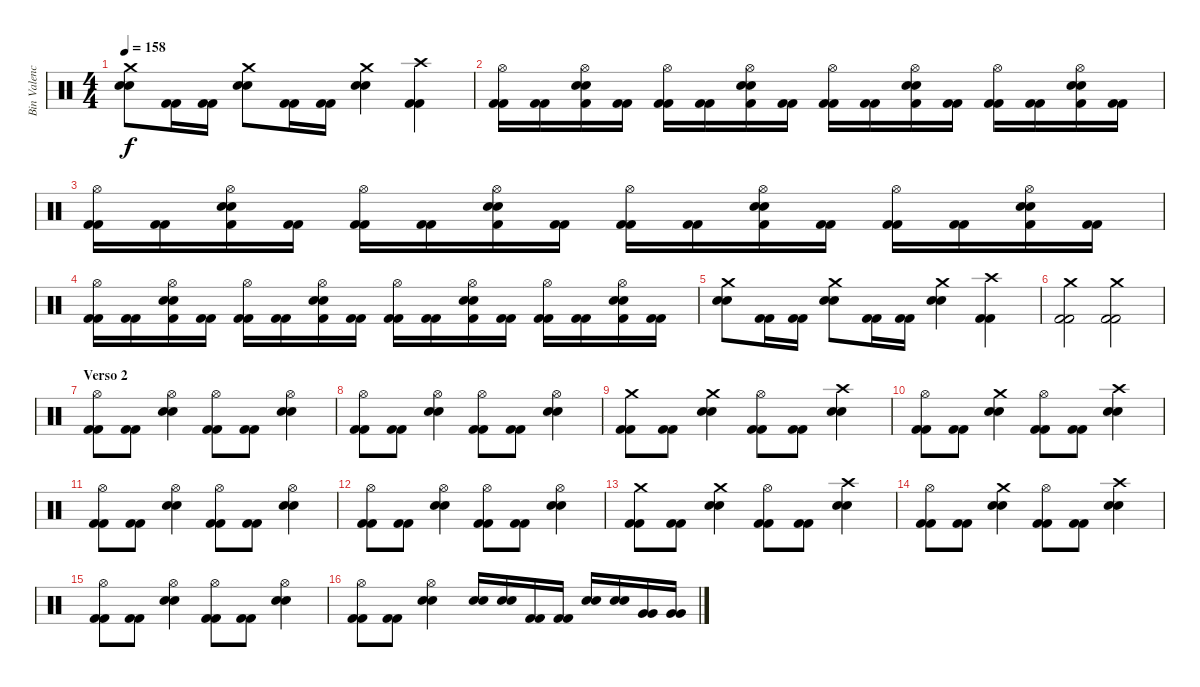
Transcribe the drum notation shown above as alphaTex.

\track ("Bin Valencia (bateria)" "Bin Valenc") {instrument percussion}
\staff {score}
\articulation defaults
\ts (4 4)
\tempo 158
\clef neutral
\ks c
("Crash medium (hit)" "Snare (hit) 2" "Snare (hit) 2").8{dy f} ("Kick (hit) 2" "Kick (hit) 2").16 ("Kick (hit) 2" "Kick (hit) 2").16 ("Crash medium (hit)" "Snare (hit) 2" "Snare (hit) 2").8 ("Kick (hit) 2" "Kick (hit) 2").16 ("Kick (hit) 2" "Kick (hit) 2").16 ("Crash medium (hit)" "Snare (hit) 2" "Snare (hit) 2").4 ("Crash high (hit)" "Kick (hit) 2" "Kick (hit) 2").4 |
("Hi-Hat (open)" "Kick (hit) 2" "Kick (hit) 2").16 ("Kick (hit) 2" "Kick (hit) 2").16 ("Hi-Hat (open)" "Snare (hit) 2" "Snare (hit) 2" "Kick (hit) 2").16 ("Kick (hit) 2" "Kick (hit) 2").16 ("Hi-Hat (open)" "Kick (hit) 2" "Kick (hit) 2").16 ("Kick (hit) 2" "Kick (hit) 2").16 ("Hi-Hat (open)" "Snare (hit) 2" "Snare (hit) 2" "Kick (hit) 2").16 ("Kick (hit) 2" "Kick (hit) 2").16 ("Hi-Hat (open)" "Kick (hit) 2" "Kick (hit) 2").16 ("Kick (hit) 2" "Kick (hit) 2").16 ("Hi-Hat (open)" "Snare (hit) 2" "Snare (hit) 2" "Kick (hit) 2").16 ("Kick (hit) 2" "Kick (hit) 2").16 ("Hi-Hat (open)" "Kick (hit) 2" "Kick (hit) 2").16 ("Kick (hit) 2" "Kick (hit) 2").16 ("Hi-Hat (open)" "Snare (hit) 2" "Snare (hit) 2" "Kick (hit) 2").16 ("Kick (hit) 2" "Kick (hit) 2").16 |
("Hi-Hat (open)" "Kick (hit) 2" "Kick (hit) 2").16 ("Kick (hit) 2" "Kick (hit) 2").16 ("Hi-Hat (open)" "Snare (hit) 2" "Snare (hit) 2" "Kick (hit) 2").16 ("Kick (hit) 2" "Kick (hit) 2").16 ("Hi-Hat (open)" "Kick (hit) 2" "Kick (hit) 2").16 ("Kick (hit) 2" "Kick (hit) 2").16 ("Hi-Hat (open)" "Snare (hit) 2" "Snare (hit) 2" "Kick (hit) 2").16 ("Kick (hit) 2" "Kick (hit) 2").16 ("Hi-Hat (open)" "Kick (hit) 2" "Kick (hit) 2").16 ("Kick (hit) 2" "Kick (hit) 2").16 ("Hi-Hat (open)" "Snare (hit) 2" "Snare (hit) 2" "Kick (hit) 2").16 ("Kick (hit) 2" "Kick (hit) 2").16 ("Hi-Hat (open)" "Kick (hit) 2" "Kick (hit) 2").16 ("Kick (hit) 2" "Kick (hit) 2").16 ("Hi-Hat (open)" "Snare (hit) 2" "Snare (hit) 2" "Kick (hit) 2").16 ("Kick (hit) 2" "Kick (hit) 2").16 |
("Hi-Hat (open)" "Kick (hit) 2" "Kick (hit) 2").16 ("Kick (hit) 2" "Kick (hit) 2").16 ("Hi-Hat (open)" "Snare (hit) 2" "Snare (hit) 2" "Kick (hit) 2").16 ("Kick (hit) 2" "Kick (hit) 2").16 ("Hi-Hat (open)" "Kick (hit) 2" "Kick (hit) 2").16 ("Kick (hit) 2" "Kick (hit) 2").16 ("Hi-Hat (open)" "Snare (hit) 2" "Snare (hit) 2" "Kick (hit) 2").16 ("Kick (hit) 2" "Kick (hit) 2").16 ("Hi-Hat (open)" "Kick (hit) 2" "Kick (hit) 2").16 ("Kick (hit) 2" "Kick (hit) 2").16 ("Hi-Hat (open)" "Snare (hit) 2" "Snare (hit) 2" "Kick (hit) 2").16 ("Kick (hit) 2" "Kick (hit) 2").16 ("Hi-Hat (open)" "Kick (hit) 2" "Kick (hit) 2").16 ("Kick (hit) 2" "Kick (hit) 2").16 ("Hi-Hat (open)" "Snare (hit) 2" "Snare (hit) 2" "Kick (hit) 2").16 ("Kick (hit) 2" "Kick (hit) 2").16 |
("Crash medium (hit)" "Snare (hit) 2" "Snare (hit) 2").8 ("Kick (hit) 2" "Kick (hit) 2").16 ("Kick (hit) 2" "Kick (hit) 2").16 ("Crash medium (hit)" "Snare (hit) 2" "Snare (hit) 2").8 ("Kick (hit) 2" "Kick (hit) 2").16 ("Kick (hit) 2" "Kick (hit) 2").16 ("Crash medium (hit)" "Snare (hit) 2" "Snare (hit) 2").4 ("Crash high (hit)" "Kick (hit) 2" "Kick (hit) 2").4 |
("Crash medium (hit)" "Kick (hit) 2" "Kick (hit) 2").2 ("Crash medium (hit)" "Kick (hit) 2" "Kick (hit) 2").2 |
\section ("" "Verso 2")
("Hi-Hat (open)" "Kick (hit) 2" "Kick (hit) 2").8 ("Kick (hit) 2" "Kick (hit) 2").8 ("Hi-Hat (open)" "Snare (hit) 2" "Snare (hit) 2").4 ("Hi-Hat (open)" "Kick (hit) 2" "Kick (hit) 2").8 ("Kick (hit) 2" "Kick (hit) 2").8 ("Hi-Hat (open)" "Snare (hit) 2" "Snare (hit) 2").4 |
("Hi-Hat (open)" "Kick (hit) 2" "Kick (hit) 2").8 ("Kick (hit) 2" "Kick (hit) 2").8 ("Hi-Hat (open)" "Snare (hit) 2" "Snare (hit) 2").4 ("Hi-Hat (open)" "Kick (hit) 2" "Kick (hit) 2").8 ("Kick (hit) 2" "Kick (hit) 2").8 ("Hi-Hat (open)" "Snare (hit) 2" "Snare (hit) 2").4 |
("Crash medium (hit)" "Kick (hit) 2" "Kick (hit) 2").8 ("Kick (hit) 2" "Kick (hit) 2").8 ("Crash medium (hit)" "Snare (hit) 2" "Snare (hit) 2").4 ("Hi-Hat (open)" "Kick (hit) 2" "Kick (hit) 2").8 ("Kick (hit) 2" "Kick (hit) 2").8 ("Crash high (hit)" "Snare (hit) 2" "Snare (hit) 2").4 |
("Hi-Hat (open)" "Kick (hit) 2" "Kick (hit) 2").8 ("Kick (hit) 2" "Kick (hit) 2").8 ("Crash medium (hit)" "Snare (hit) 2" "Snare (hit) 2").4 ("Hi-Hat (open)" "Kick (hit) 2" "Kick (hit) 2").8 ("Kick (hit) 2" "Kick (hit) 2").8 ("Crash high (hit)" "Snare (hit) 2" "Snare (hit) 2").4 |
("Hi-Hat (open)" "Kick (hit) 2" "Kick (hit) 2").8 ("Kick (hit) 2" "Kick (hit) 2").8 ("Hi-Hat (open)" "Snare (hit) 2" "Snare (hit) 2").4 ("Hi-Hat (open)" "Kick (hit) 2" "Kick (hit) 2").8 ("Kick (hit) 2" "Kick (hit) 2").8 ("Hi-Hat (open)" "Snare (hit) 2" "Snare (hit) 2").4 |
("Hi-Hat (open)" "Kick (hit) 2" "Kick (hit) 2").8 ("Kick (hit) 2" "Kick (hit) 2").8 ("Hi-Hat (open)" "Snare (hit) 2" "Snare (hit) 2").4 ("Hi-Hat (open)" "Kick (hit) 2" "Kick (hit) 2").8 ("Kick (hit) 2" "Kick (hit) 2").8 ("Hi-Hat (open)" "Snare (hit) 2" "Snare (hit) 2").4 |
("Crash medium (hit)" "Kick (hit) 2" "Kick (hit) 2").8 ("Kick (hit) 2" "Kick (hit) 2").8 ("Crash medium (hit)" "Snare (hit) 2" "Snare (hit) 2").4 ("Hi-Hat (open)" "Kick (hit) 2" "Kick (hit) 2").8 ("Kick (hit) 2" "Kick (hit) 2").8 ("Crash high (hit)" "Snare (hit) 2" "Snare (hit) 2").4 |
("Hi-Hat (open)" "Kick (hit) 2" "Kick (hit) 2").8 ("Kick (hit) 2" "Kick (hit) 2").8 ("Crash medium (hit)" "Snare (hit) 2" "Snare (hit) 2").4 ("Hi-Hat (open)" "Kick (hit) 2" "Kick (hit) 2").8 ("Kick (hit) 2" "Kick (hit) 2").8 ("Crash high (hit)" "Snare (hit) 2" "Snare (hit) 2").4 |
("Hi-Hat (open)" "Kick (hit) 2" "Kick (hit) 2").8 ("Kick (hit) 2" "Kick (hit) 2").8 ("Hi-Hat (open)" "Snare (hit) 2" "Snare (hit) 2").4 ("Hi-Hat (open)" "Kick (hit) 2" "Kick (hit) 2").8 ("Kick (hit) 2" "Kick (hit) 2").8 ("Hi-Hat (open)" "Snare (hit) 2" "Snare (hit) 2").4 |
("Hi-Hat (open)" "Kick (hit) 2" "Kick (hit) 2").8 ("Kick (hit) 2" "Kick (hit) 2").8 ("Hi-Hat (open)" "Snare (hit) 2" "Snare (hit) 2").4 ("Snare (hit) 2" "Snare (hit) 2").16 ("Snare (hit) 2" "Snare (hit) 2").16 ("Kick (hit) 2" "Kick (hit) 2").16 ("Kick (hit) 2" "Kick (hit) 2").16 ("Snare (hit) 2" "Snare (hit) 2").16 ("Snare (hit) 2" "Snare (hit) 2").16 ("Very Low Tom (hit)" "Very Low Tom (hit)").16 ("Very Low Tom (hit)" "Very Low Tom (hit)").16
